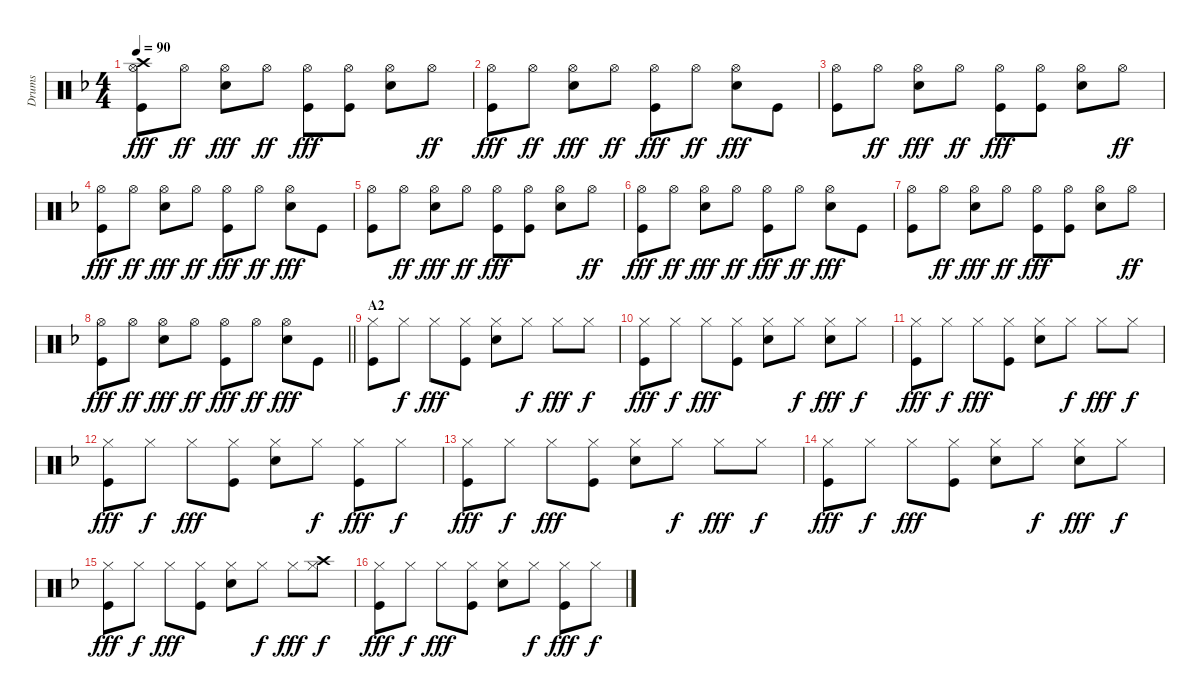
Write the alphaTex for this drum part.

\track ("Drums" "Drums") {instrument percussion}
\staff {score}
\articulation defaults
\ts (4 4)
\tempo 90
\clef neutral
\ks f
("Hi-Hat (open)" "Crash high (hit)" "Kick (hit)").8{dy fff} "Hi-Hat (open)".8{dy ff} ("Hi-Hat (open)" "Snare (hit) 2").8{dy fff} "Hi-Hat (open)".8{dy ff} ("Hi-Hat (open)" "Kick (hit)").8{dy fff} ("Hi-Hat (open)" "Kick (hit)").8 ("Hi-Hat (open)" "Snare (hit) 2").8 "Hi-Hat (open)".8{dy ff} |
("Hi-Hat (open)" "Kick (hit)").8{dy fff} "Hi-Hat (open)".8{dy ff} ("Hi-Hat (open)" "Snare (hit) 2").8{dy fff} "Hi-Hat (open)".8{dy ff} ("Hi-Hat (open)" "Kick (hit)").8{dy fff} "Hi-Hat (open)".8{dy ff} ("Hi-Hat (open)" "Snare (hit) 2").8{dy fff} "Kick (hit)".8 |
("Hi-Hat (open)" "Kick (hit)").8 "Hi-Hat (open)".8{dy ff} ("Hi-Hat (open)" "Snare (hit) 2").8{dy fff} "Hi-Hat (open)".8{dy ff} ("Hi-Hat (open)" "Kick (hit)").8{dy fff} ("Hi-Hat (open)" "Kick (hit)").8 ("Hi-Hat (open)" "Snare (hit) 2").8 "Hi-Hat (open)".8{dy ff} |
("Hi-Hat (open)" "Kick (hit)").8{dy fff} "Hi-Hat (open)".8{dy ff} ("Hi-Hat (open)" "Snare (hit) 2").8{dy fff} "Hi-Hat (open)".8{dy ff} ("Hi-Hat (open)" "Kick (hit)").8{dy fff} "Hi-Hat (open)".8{dy ff} ("Hi-Hat (open)" "Snare (hit) 2").8{dy fff} "Kick (hit)".8 |
("Hi-Hat (open)" "Kick (hit)").8 "Hi-Hat (open)".8{dy ff} ("Hi-Hat (open)" "Snare (hit) 2").8{dy fff} "Hi-Hat (open)".8{dy ff} ("Hi-Hat (open)" "Kick (hit)").8{dy fff} ("Hi-Hat (open)" "Kick (hit)").8 ("Hi-Hat (open)" "Snare (hit) 2").8 "Hi-Hat (open)".8{dy ff} |
("Hi-Hat (open)" "Kick (hit)").8{dy fff} "Hi-Hat (open)".8{dy ff} ("Hi-Hat (open)" "Snare (hit) 2").8{dy fff} "Hi-Hat (open)".8{dy ff} ("Hi-Hat (open)" "Kick (hit)").8{dy fff} "Hi-Hat (open)".8{dy ff} ("Hi-Hat (open)" "Snare (hit) 2").8{dy fff} "Kick (hit)".8 |
("Hi-Hat (open)" "Kick (hit)").8 "Hi-Hat (open)".8{dy ff} ("Hi-Hat (open)" "Snare (hit) 2").8{dy fff} "Hi-Hat (open)".8{dy ff} ("Hi-Hat (open)" "Kick (hit)").8{dy fff} ("Hi-Hat (open)" "Kick (hit)").8 ("Hi-Hat (open)" "Snare (hit) 2").8 "Hi-Hat (open)".8{dy ff} |
\barLineRight lightlight
("Hi-Hat (open)" "Kick (hit)").8{dy fff} "Hi-Hat (open)".8{dy ff} ("Hi-Hat (open)" "Snare (hit) 2").8{dy fff} "Hi-Hat (open)".8{dy ff} ("Hi-Hat (open)" "Kick (hit)").8{dy fff} "Hi-Hat (open)".8{dy ff} ("Hi-Hat (open)" "Snare (hit) 2").8{dy fff} "Kick (hit)".8 |
\section ("" "A2")
("Hi-Hat (closed)" "Kick (hit)").8 "Hi-Hat (closed)".8{dy f} "Hi-Hat (closed)".8{dy fff} ("Hi-Hat (closed)" "Kick (hit)").8 ("Hi-Hat (closed)" "Snare (hit) 2").8 "Hi-Hat (closed)".8{dy f} "Hi-Hat (closed)".8{dy fff} "Hi-Hat (closed)".8{dy f} |
("Hi-Hat (closed)" "Kick (hit)").8{dy fff} "Hi-Hat (closed)".8{dy f} "Hi-Hat (closed)".8{dy fff} ("Hi-Hat (closed)" "Kick (hit)").8 ("Hi-Hat (closed)" "Snare (hit) 2").8 "Hi-Hat (closed)".8{dy f} ("Hi-Hat (closed)" "Snare (hit) 2").8{dy fff} "Hi-Hat (closed)".8{dy f} |
("Hi-Hat (closed)" "Kick (hit)").8{dy fff} "Hi-Hat (closed)".8{dy f} "Hi-Hat (closed)".8{dy fff} ("Hi-Hat (closed)" "Kick (hit)").8 ("Hi-Hat (closed)" "Snare (hit) 2").8 "Hi-Hat (closed)".8{dy f} "Hi-Hat (closed)".8{dy fff} "Hi-Hat (closed)".8{dy f} |
("Hi-Hat (closed)" "Kick (hit)").8{dy fff} "Hi-Hat (closed)".8{dy f} "Hi-Hat (closed)".8{dy fff} ("Hi-Hat (closed)" "Kick (hit)").8 ("Hi-Hat (closed)" "Snare (hit) 2").8 "Hi-Hat (closed)".8{dy f} ("Hi-Hat (closed)" "Kick (hit)").8{dy fff} "Hi-Hat (closed)".8{dy f} |
("Hi-Hat (closed)" "Kick (hit)").8{dy fff} "Hi-Hat (closed)".8{dy f} "Hi-Hat (closed)".8{dy fff} ("Hi-Hat (closed)" "Kick (hit)").8 ("Hi-Hat (closed)" "Snare (hit) 2").8 "Hi-Hat (closed)".8{dy f} "Hi-Hat (closed)".8{dy fff} "Hi-Hat (closed)".8{dy f} |
("Hi-Hat (closed)" "Kick (hit)").8{dy fff} "Hi-Hat (closed)".8{dy f} "Hi-Hat (closed)".8{dy fff} ("Hi-Hat (closed)" "Kick (hit)").8 ("Hi-Hat (closed)" "Snare (hit) 2").8 "Hi-Hat (closed)".8{dy f} ("Hi-Hat (closed)" "Snare (hit) 2").8{dy fff} "Hi-Hat (closed)".8{dy f} |
("Hi-Hat (closed)" "Kick (hit)").8{dy fff} "Hi-Hat (closed)".8{dy f} "Hi-Hat (closed)".8{dy fff} ("Hi-Hat (closed)" "Kick (hit)").8 ("Hi-Hat (closed)" "Snare (hit) 2").8 "Hi-Hat (closed)".8{dy f} "Hi-Hat (closed)".8{dy fff} ("Hi-Hat (closed)" "Crash high (hit)").8{dy f} |
("Hi-Hat (closed)" "Kick (hit)").8{dy fff} "Hi-Hat (closed)".8{dy f} "Hi-Hat (closed)".8{dy fff} ("Hi-Hat (closed)" "Kick (hit)").8 ("Hi-Hat (closed)" "Snare (hit) 2").8 "Hi-Hat (closed)".8{dy f} ("Hi-Hat (closed)" "Kick (hit)").8{dy fff} "Hi-Hat (closed)".8{dy f}
